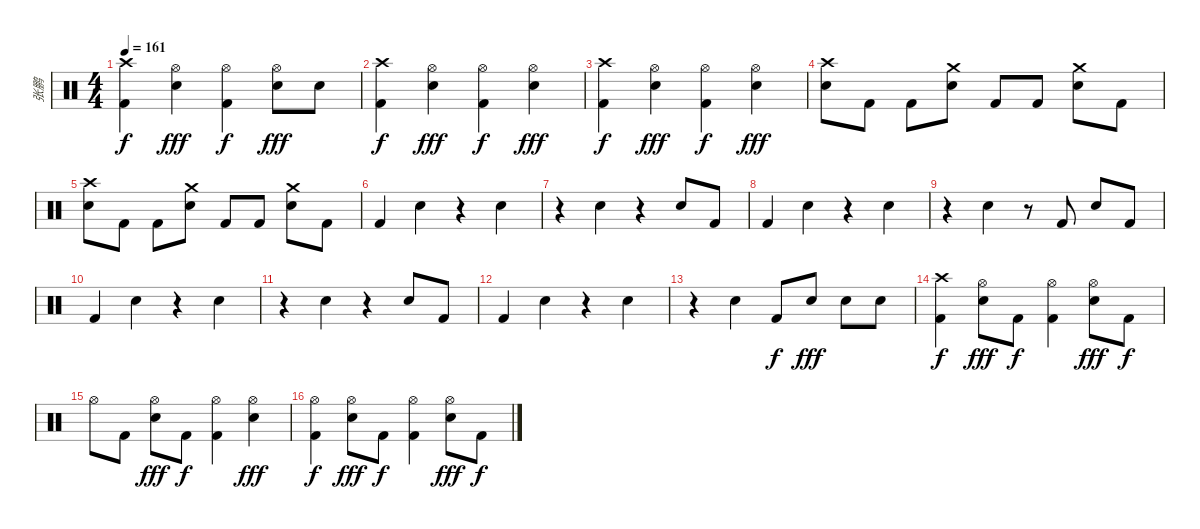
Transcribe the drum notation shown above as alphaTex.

\track ("张鹏" "张鹏") {instrument percussion}
\staff {score}
\articulation defaults
\ts (4 4)
\tempo 161
\clef neutral
\ks c
("Crash high (hit)" "Kick (hit) 2").4{dy f} ("Hi-Hat (open)" "Electric Snare (hit)").4{dy fff} ("Hi-Hat (open)" "Kick (hit) 2").4{dy f} ("Hi-Hat (open)" "Electric Snare (hit)").8{dy fff} "Electric Snare (hit)".8 |
("Crash high (hit)" "Kick (hit) 2").4{dy f} ("Hi-Hat (open)" "Electric Snare (hit)").4{dy fff} ("Hi-Hat (open)" "Kick (hit) 2").4{dy f} ("Hi-Hat (open)" "Electric Snare (hit)").4{dy fff} |
("Crash high (hit)" "Kick (hit) 2").4{dy f} ("Hi-Hat (open)" "Electric Snare (hit)").4{dy fff} ("Hi-Hat (open)" "Kick (hit) 2").4{dy f} ("Hi-Hat (open)" "Electric Snare (hit)").4{dy fff} |
("Crash high (hit)" "Electric Snare (hit)").8 "Kick (hit) 2".8 "Kick (hit) 2".8 ("Crash medium (hit)" "Electric Snare (hit)").8 "Kick (hit) 2".8 "Kick (hit) 2".8 ("Crash medium (hit)" "Electric Snare (hit)").8 "Kick (hit) 2".8 |
("Crash high (hit)" "Electric Snare (hit)").8 "Kick (hit) 2".8 "Kick (hit) 2".8 ("Crash medium (hit)" "Electric Snare (hit)").8 "Kick (hit) 2".8 "Kick (hit) 2".8 ("Crash medium (hit)" "Electric Snare (hit)").8 "Kick (hit) 2".8 |
"Kick (hit) 2".4 "Electric Snare (hit)".4 r.4 "Electric Snare (hit)".4 |
r.4 "Electric Snare (hit)".4 r.4 "Electric Snare (hit)".8 "Kick (hit) 2".8 |
"Kick (hit) 2".4 "Electric Snare (hit)".4 r.4 "Electric Snare (hit)".4 |
r.4 "Electric Snare (hit)".4 r.8 "Kick (hit) 2".8 "Electric Snare (hit)".8 "Kick (hit) 2".8 |
"Kick (hit) 2".4 "Electric Snare (hit)".4 r.4 "Electric Snare (hit)".4 |
r.4 "Electric Snare (hit)".4 r.4 "Electric Snare (hit)".8 "Kick (hit) 2".8 |
"Kick (hit) 2".4 "Electric Snare (hit)".4 r.4 "Electric Snare (hit)".4 |
r.4 "Electric Snare (hit)".4 "Kick (hit) 2".8{dy f} "Electric Snare (hit)".8{dy fff} "Electric Snare (hit)".8 "Electric Snare (hit)".8 |
("Crash high (hit)" "Kick (hit) 2").4{dy f} ("Hi-Hat (open)" "Electric Snare (hit)").8{dy fff} "Kick (hit) 2".8{dy f} ("Hi-Hat (open)" "Kick (hit) 2").4 ("Hi-Hat (open)" "Electric Snare (hit)").8{dy fff} "Kick (hit) 2".8{dy f} |
"Hi-Hat (open)".8 "Kick (hit) 2".8 ("Hi-Hat (open)" "Electric Snare (hit)").8{dy fff} "Kick (hit) 2".8{dy f} ("Hi-Hat (open)" "Kick (hit) 2").4 ("Hi-Hat (open)" "Electric Snare (hit)").4{dy fff} |
("Hi-Hat (open)" "Kick (hit) 2").4{dy f} ("Hi-Hat (open)" "Electric Snare (hit)").8{dy fff} "Kick (hit) 2".8{dy f} ("Hi-Hat (open)" "Kick (hit) 2").4 ("Hi-Hat (open)" "Electric Snare (hit)").8{dy fff} "Kick (hit) 2".8{dy f}
